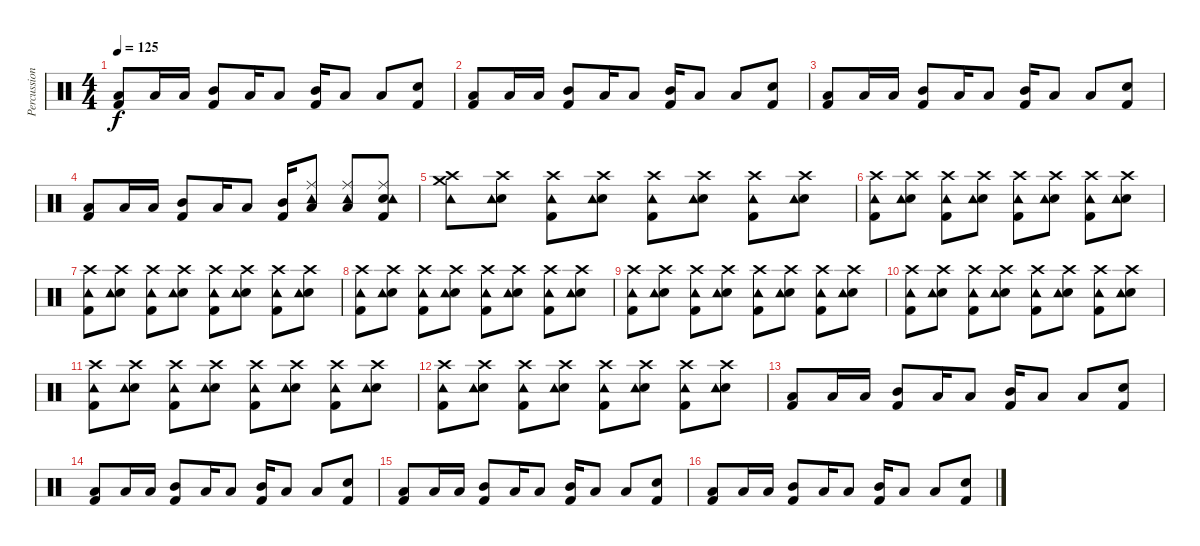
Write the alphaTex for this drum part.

\track ("Percussioni" "Percussion") {instrument percussion}
\staff {score}
\articulation defaults
\ts (4 4)
\tempo 125
\clef neutral
\ks c
("Low Floor Tom (hit)" "Kick (hit) 2").8{dy f} "Low Floor Tom (hit)".16 "Low Floor Tom (hit)".16 ("Mid Tom (hit)" "Kick (hit) 2").8 "Low Floor Tom (hit)".16 "Low Floor Tom (hit)".8 ("Mid Tom (hit)" "Kick (hit) 2").16 "Low Floor Tom (hit)".8 "Low Floor Tom (hit)".8 ("Snare (hit) 2" "Kick (hit) 2").8 |
("Low Floor Tom (hit)" "Kick (hit) 2").8 "Low Floor Tom (hit)".16 "Low Floor Tom (hit)".16 ("Mid Tom (hit)" "Kick (hit) 2").8 "Low Floor Tom (hit)".16 "Low Floor Tom (hit)".8 ("Mid Tom (hit)" "Kick (hit) 2").16 "Low Floor Tom (hit)".8 "Low Floor Tom (hit)".8 ("Snare (hit) 2" "Kick (hit) 2").8 |
("Low Floor Tom (hit)" "Kick (hit) 2").8 "Low Floor Tom (hit)".16 "Low Floor Tom (hit)".16 ("Mid Tom (hit)" "Kick (hit) 2").8 "Low Floor Tom (hit)".16 "Low Floor Tom (hit)".8 ("Mid Tom (hit)" "Kick (hit) 2").16 "Low Floor Tom (hit)".8 "Low Floor Tom (hit)".8 ("Snare (hit) 2" "Kick (hit) 2").8 |
("Low Floor Tom (hit)" "Kick (hit) 2").8 "Low Floor Tom (hit)".16 "Low Floor Tom (hit)".16 ("Mid Tom (hit)" "Kick (hit) 2").8 "Low Floor Tom (hit)".16 "Low Floor Tom (hit)".8 ("Mid Tom (hit)" "Kick (hit) 2").16 ("Low Floor Tom (hit)" "Ride (middle)" "Tambourine (hit)").8 ("Low Floor Tom (hit)" "Ride (middle)" "Tambourine (hit)").8 ("Snare (hit) 2" "Ride (middle)" "Kick (hit) 2" "Tambourine (hit)").8 |
("Crash high (hit)" "Crash medium (hit)" "Tambourine (hit)").8 ("Crash high (hit)" "Snare (hit) 2" "Tambourine (hit)").8 ("Crash high (hit)" "Kick (hit) 2" "Tambourine (hit)").8 ("Crash high (hit)" "Snare (hit) 2" "Tambourine (hit)").8 ("Crash high (hit)" "Kick (hit) 2" "Tambourine (hit)").8 ("Crash high (hit)" "Snare (hit) 2" "Tambourine (hit)").8 ("Crash high (hit)" "Kick (hit) 2" "Tambourine (hit)").8 ("Crash high (hit)" "Snare (hit) 2" "Tambourine (hit)").8 |
("Crash high (hit)" "Kick (hit) 2" "Tambourine (hit)").8 ("Crash high (hit)" "Snare (hit) 2" "Tambourine (hit)").8 ("Crash high (hit)" "Kick (hit) 2" "Tambourine (hit)").8 ("Crash high (hit)" "Snare (hit) 2" "Tambourine (hit)").8 ("Crash high (hit)" "Kick (hit) 2" "Tambourine (hit)").8 ("Crash high (hit)" "Snare (hit) 2" "Tambourine (hit)").8 ("Crash high (hit)" "Kick (hit) 2" "Tambourine (hit)").8 ("Crash high (hit)" "Snare (hit) 2" "Tambourine (hit)").8 |
("Crash high (hit)" "Kick (hit) 2" "Tambourine (hit)").8 ("Crash high (hit)" "Snare (hit) 2" "Tambourine (hit)").8 ("Crash high (hit)" "Kick (hit) 2" "Tambourine (hit)").8 ("Crash high (hit)" "Snare (hit) 2" "Tambourine (hit)").8 ("Crash high (hit)" "Kick (hit) 2" "Tambourine (hit)").8 ("Crash high (hit)" "Snare (hit) 2" "Tambourine (hit)").8 ("Crash high (hit)" "Kick (hit) 2" "Tambourine (hit)").8 ("Crash high (hit)" "Snare (hit) 2" "Tambourine (hit)").8 |
("Crash high (hit)" "Kick (hit) 2" "Tambourine (hit)").8 ("Crash high (hit)" "Snare (hit) 2" "Tambourine (hit)").8 ("Crash high (hit)" "Kick (hit) 2" "Tambourine (hit)").8 ("Crash high (hit)" "Snare (hit) 2" "Tambourine (hit)").8 ("Crash high (hit)" "Kick (hit) 2" "Tambourine (hit)").8 ("Crash high (hit)" "Snare (hit) 2" "Tambourine (hit)").8 ("Crash high (hit)" "Kick (hit) 2" "Tambourine (hit)").8 ("Crash high (hit)" "Snare (hit) 2" "Tambourine (hit)").8 |
("Crash high (hit)" "Kick (hit) 2" "Tambourine (hit)").8 ("Crash high (hit)" "Snare (hit) 2" "Tambourine (hit)").8 ("Crash high (hit)" "Kick (hit) 2" "Tambourine (hit)").8 ("Crash high (hit)" "Snare (hit) 2" "Tambourine (hit)").8 ("Crash high (hit)" "Kick (hit) 2" "Tambourine (hit)").8 ("Crash high (hit)" "Snare (hit) 2" "Tambourine (hit)").8 ("Crash high (hit)" "Kick (hit) 2" "Tambourine (hit)").8 ("Crash high (hit)" "Snare (hit) 2" "Tambourine (hit)").8 |
("Crash high (hit)" "Kick (hit) 2" "Tambourine (hit)").8 ("Crash high (hit)" "Snare (hit) 2" "Tambourine (hit)").8 ("Crash high (hit)" "Kick (hit) 2" "Tambourine (hit)").8 ("Crash high (hit)" "Snare (hit) 2" "Tambourine (hit)").8 ("Crash high (hit)" "Kick (hit) 2" "Tambourine (hit)").8 ("Crash high (hit)" "Snare (hit) 2" "Tambourine (hit)").8 ("Crash high (hit)" "Kick (hit) 2" "Tambourine (hit)").8 ("Crash high (hit)" "Snare (hit) 2" "Tambourine (hit)").8 |
("Crash high (hit)" "Kick (hit) 2" "Tambourine (hit)").8 ("Crash high (hit)" "Snare (hit) 2" "Tambourine (hit)").8 ("Crash high (hit)" "Kick (hit) 2" "Tambourine (hit)").8 ("Crash high (hit)" "Snare (hit) 2" "Tambourine (hit)").8 ("Crash high (hit)" "Kick (hit) 2" "Tambourine (hit)").8 ("Crash high (hit)" "Snare (hit) 2" "Tambourine (hit)").8 ("Crash high (hit)" "Kick (hit) 2" "Tambourine (hit)").8 ("Crash high (hit)" "Snare (hit) 2" "Tambourine (hit)").8 |
("Crash high (hit)" "Kick (hit) 2" "Tambourine (hit)").8 ("Crash high (hit)" "Snare (hit) 2" "Tambourine (hit)").8 ("Crash high (hit)" "Kick (hit) 2" "Tambourine (hit)").8 ("Crash high (hit)" "Snare (hit) 2" "Tambourine (hit)").8 ("Crash high (hit)" "Kick (hit) 2" "Tambourine (hit)").8 ("Crash high (hit)" "Snare (hit) 2" "Tambourine (hit)").8 ("Crash high (hit)" "Kick (hit) 2" "Tambourine (hit)").8 ("Crash high (hit)" "Snare (hit) 2" "Tambourine (hit)").8 |
("Low Floor Tom (hit)" "Kick (hit) 2").8 "Low Floor Tom (hit)".16 "Low Floor Tom (hit)".16 ("Mid Tom (hit)" "Kick (hit) 2").8 "Low Floor Tom (hit)".16 "Low Floor Tom (hit)".8 ("Mid Tom (hit)" "Kick (hit) 2").16 "Low Floor Tom (hit)".8 "Low Floor Tom (hit)".8 ("Snare (hit) 2" "Kick (hit) 2").8 |
("Low Floor Tom (hit)" "Kick (hit) 2").8 "Low Floor Tom (hit)".16 "Low Floor Tom (hit)".16 ("Mid Tom (hit)" "Kick (hit) 2").8 "Low Floor Tom (hit)".16 "Low Floor Tom (hit)".8 ("Mid Tom (hit)" "Kick (hit) 2").16 "Low Floor Tom (hit)".8 "Low Floor Tom (hit)".8 ("Snare (hit) 2" "Kick (hit) 2").8 |
("Low Floor Tom (hit)" "Kick (hit) 2").8 "Low Floor Tom (hit)".16 "Low Floor Tom (hit)".16 ("Mid Tom (hit)" "Kick (hit) 2").8 "Low Floor Tom (hit)".16 "Low Floor Tom (hit)".8 ("Mid Tom (hit)" "Kick (hit) 2").16 "Low Floor Tom (hit)".8 "Low Floor Tom (hit)".8 ("Snare (hit) 2" "Kick (hit) 2").8 |
("Low Floor Tom (hit)" "Kick (hit) 2").8 "Low Floor Tom (hit)".16 "Low Floor Tom (hit)".16 ("Mid Tom (hit)" "Kick (hit) 2").8 "Low Floor Tom (hit)".16 "Low Floor Tom (hit)".8 ("Mid Tom (hit)" "Kick (hit) 2").16 "Low Floor Tom (hit)".8 "Low Floor Tom (hit)".8 ("Snare (hit) 2" "Kick (hit) 2").8
